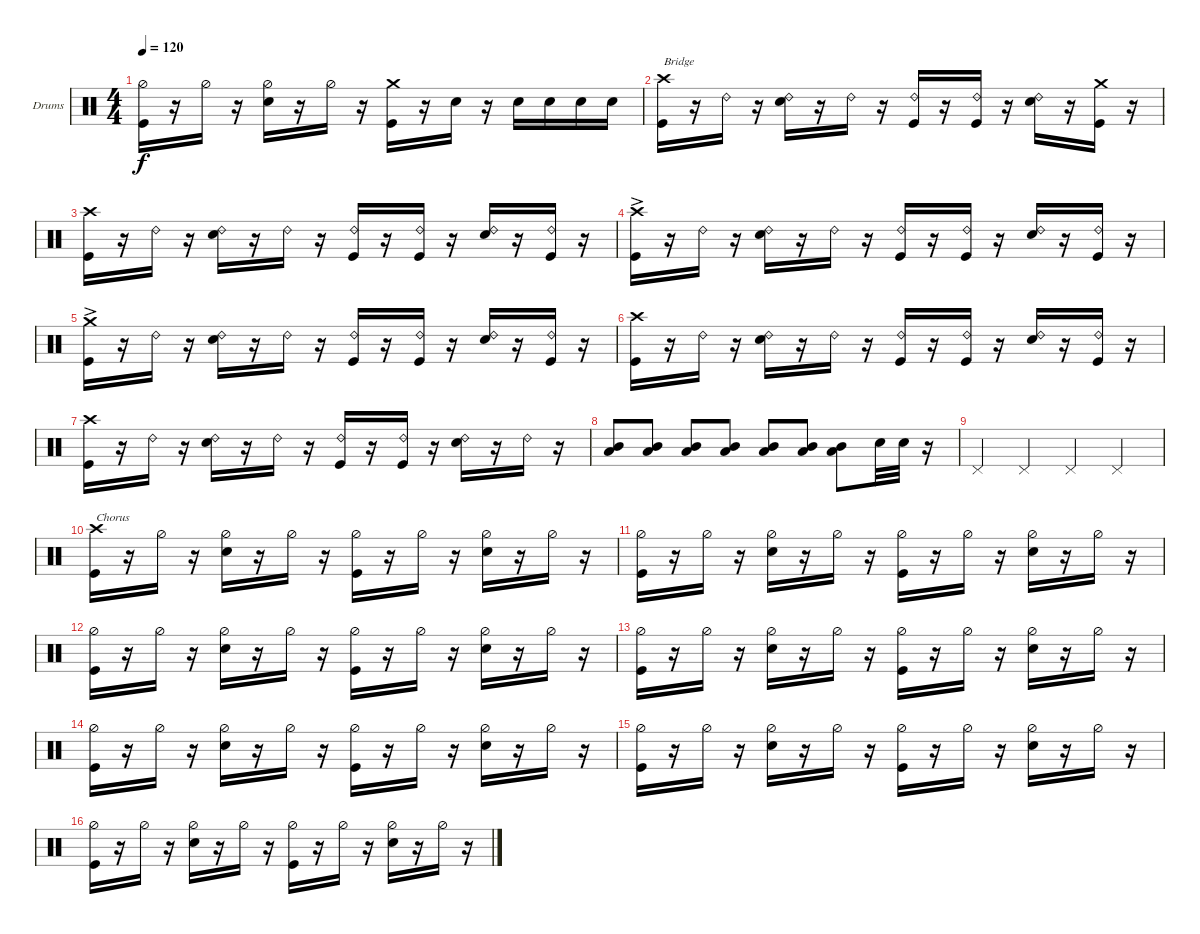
\defaultSystemsLayout 4
\bracketExtendMode groupsimilarinstruments
\firstSystemTrackNameOrientation horizontal
\otherSystemsTrackNameOrientation horizontal
\track ("Drums  SK" "Drums") {instrument percussion}
\staff {score}
\articulation defaults
\ts (4 4)
\tempo 120
\clef neutral
\ks c
("Kick (hit)" "Hi-Hat (half)").16{dy f} r.16 "Hi-Hat (half)".16 r.16 ("Snare (hit) 2" "Hi-Hat (half)").16 r.16 "Hi-Hat (half)".16 r.16 ("Kick (hit)" "Crash medium (hit)").16 r.16 "Snare (hit) 2".16 r.16 "Snare (hit) 2".16 "Snare (hit) 2".16 "Snare (hit) 2".16 "Snare (hit) 2".16 |
("Kick (hit)" "Crash high (hit)").16{txt "Bridge"} r.16 "Ride (bell) 2".16 r.16 ("Snare (hit) 2" "Ride (bell) 2").16 r.16 "Ride (bell) 2".16 r.16 ("Kick (hit)" "Ride (bell) 2").16 r.16 ("Kick (hit)" "Ride (bell) 2").16 r.16 ("Snare (hit) 2" "Ride (bell) 2").16 r.16 ("Kick (hit)" "Crash medium (hit)").16 r.16 |
("Kick (hit)" "Crash high (hit)").16 r.16 "Ride (bell) 2".16 r.16 ("Snare (hit) 2" "Ride (bell) 2").16 r.16 "Ride (bell) 2".16 r.16 ("Kick (hit)" "Ride (bell) 2").16 r.16 ("Kick (hit)" "Ride (bell) 2").16 r.16 ("Snare (hit) 2" "Ride (bell) 2").16 r.16 ("Kick (hit)" "Ride (bell) 2").16 r.16 |
("Kick (hit)"{ac} "Crash high (hit)"{ac}).16 r.16 "Ride (bell) 2".16 r.16 ("Snare (hit) 2" "Ride (bell) 2").16 r.16 "Ride (bell) 2".16 r.16 ("Kick (hit)" "Ride (bell) 2").16 r.16 ("Kick (hit)" "Ride (bell) 2").16 r.16 ("Snare (hit) 2" "Ride (bell) 2").16 r.16 ("Kick (hit)" "Ride (bell) 2").16 r.16 |
("Kick (hit)"{ac} "Crash medium (hit)"{ac}).16 r.16 "Ride (bell) 2".16 r.16 ("Snare (hit) 2" "Ride (bell) 2").16 r.16 "Ride (bell) 2".16 r.16 ("Kick (hit)" "Ride (bell) 2").16 r.16 ("Kick (hit)" "Ride (bell) 2").16 r.16 ("Snare (hit) 2" "Ride (bell) 2").16 r.16 ("Kick (hit)" "Ride (bell) 2").16 r.16 |
("Kick (hit)" "Crash high (hit)").16 r.16 "Ride (bell) 2".16 r.16 ("Snare (hit) 2" "Ride (bell) 2").16 r.16 "Ride (bell) 2".16 r.16 ("Kick (hit)" "Ride (bell) 2").16 r.16 ("Kick (hit)" "Ride (bell) 2").16 r.16 ("Snare (hit) 2" "Ride (bell) 2").16 r.16 ("Kick (hit)" "Ride (bell) 2").16 r.16 |
("Kick (hit)" "Crash high (hit)").16 r.16 "Ride (bell) 2".16 r.16 ("Snare (hit) 2" "Ride (bell) 2").16 r.16 "Ride (bell) 2".16 r.16 ("Kick (hit)" "Ride (bell) 2").16 r.16 ("Kick (hit)" "Ride (bell) 2").16 r.16 ("Snare (hit) 2" "Ride (bell) 2").16 r.16 "Ride (bell) 2".16 r.16 |
("Low Tom (hit)" "Mid Tom (hit)").8 ("Low Tom (hit)" "Mid Tom (hit)").8 ("Low Tom (hit)" "Mid Tom (hit)").8 ("Low Tom (hit)" "Mid Tom (hit)").8 ("Low Tom (hit)" "Mid Tom (hit)").8 ("Low Tom (hit)" "Mid Tom (hit)").8 ("Low Tom (hit)" "Mid Tom (hit)").8 "Snare (hit) 2".32 "Snare (hit) 2".32 r.16 |
"Pedal Hi-Hat (hit)".4 "Pedal Hi-Hat (hit)".4 "Pedal Hi-Hat (hit)".4 "Pedal Hi-Hat (hit)".4 |
("Kick (hit)" "Crash high (hit)").16{txt "Chorus"} r.16 "Hi-Hat (half)".16 r.16 ("Snare (hit) 2" "Hi-Hat (half)").16 r.16 "Hi-Hat (half)".16 r.16 ("Kick (hit)" "Hi-Hat (half)").16 r.16 "Hi-Hat (half)".16 r.16 ("Snare (hit) 2" "Hi-Hat (half)").16 r.16 "Hi-Hat (half)".16 r.16 |
("Kick (hit)" "Hi-Hat (half)").16 r.16 "Hi-Hat (half)".16 r.16 ("Snare (hit) 2" "Hi-Hat (half)").16 r.16 "Hi-Hat (half)".16 r.16 ("Kick (hit)" "Hi-Hat (half)").16 r.16 "Hi-Hat (half)".16 r.16 ("Snare (hit) 2" "Hi-Hat (half)").16 r.16 "Hi-Hat (half)".16 r.16 |
("Kick (hit)" "Hi-Hat (half)").16 r.16 "Hi-Hat (half)".16 r.16 ("Snare (hit) 2" "Hi-Hat (half)").16 r.16 "Hi-Hat (half)".16 r.16 ("Kick (hit)" "Hi-Hat (half)").16 r.16 "Hi-Hat (half)".16 r.16 ("Snare (hit) 2" "Hi-Hat (half)").16 r.16 "Hi-Hat (half)".16 r.16 |
("Kick (hit)" "Hi-Hat (half)").16 r.16 "Hi-Hat (half)".16 r.16 ("Snare (hit) 2" "Hi-Hat (half)").16 r.16 "Hi-Hat (half)".16 r.16 ("Kick (hit)" "Hi-Hat (half)").16 r.16 "Hi-Hat (half)".16 r.16 ("Snare (hit) 2" "Hi-Hat (half)").16 r.16 "Hi-Hat (half)".16 r.16 |
("Kick (hit)" "Hi-Hat (half)").16 r.16 "Hi-Hat (half)".16 r.16 ("Snare (hit) 2" "Hi-Hat (half)").16 r.16 "Hi-Hat (half)".16 r.16 ("Kick (hit)" "Hi-Hat (half)").16 r.16 "Hi-Hat (half)".16 r.16 ("Snare (hit) 2" "Hi-Hat (half)").16 r.16 "Hi-Hat (half)".16 r.16 |
("Kick (hit)" "Hi-Hat (half)").16 r.16 "Hi-Hat (half)".16 r.16 ("Snare (hit) 2" "Hi-Hat (half)").16 r.16 "Hi-Hat (half)".16 r.16 ("Kick (hit)" "Hi-Hat (half)").16 r.16 "Hi-Hat (half)".16 r.16 ("Snare (hit) 2" "Hi-Hat (half)").16 r.16 "Hi-Hat (half)".16 r.16 |
("Kick (hit)" "Hi-Hat (half)").16 r.16 "Hi-Hat (half)".16 r.16 ("Snare (hit) 2" "Hi-Hat (half)").16 r.16 "Hi-Hat (half)".16 r.16 ("Kick (hit)" "Hi-Hat (half)").16 r.16 "Hi-Hat (half)".16 r.16 ("Snare (hit) 2" "Hi-Hat (half)").16 r.16 "Hi-Hat (half)".16 r.16
